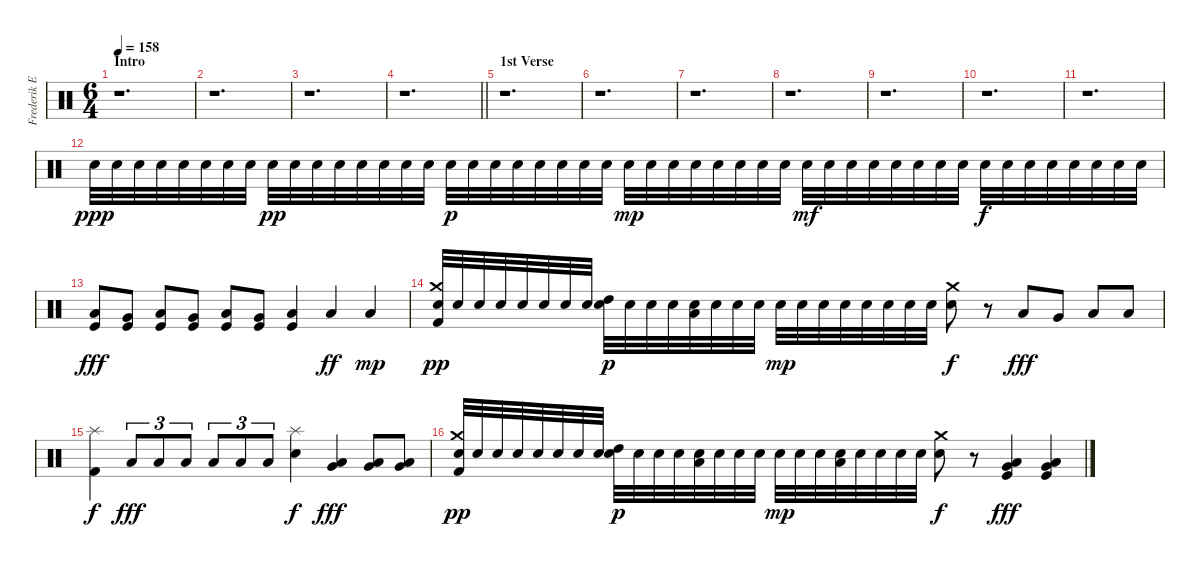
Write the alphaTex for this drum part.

\track ("Frederik Ehmke" "Frederik E") {instrument percussion}
\staff {score}
\articulation defaults
\ts (6 4)
\section ("" "Intro")
\tempo 158
\clef neutral
\ks c
r.1{d dy ppp} |
r.1{d} |
r.1{d} |
\barLineRight lightlight
r.1{d} |
\section ("" "1st Verse")
r.1{d} |
r.1{d} |
r.1{d} |
r.1{d} |
r.1{d} |
r.1{d} |
r.1{d} |
"Electric Snare (hit)".32 "Electric Snare (hit)".32 "Electric Snare (hit)".32 "Electric Snare (hit)".32 "Electric Snare (hit)".32 "Electric Snare (hit)".32 "Electric Snare (hit)".32 "Electric Snare (hit)".32 "Electric Snare (hit)".32{dy pp} "Electric Snare (hit)".32 "Electric Snare (hit)".32 "Electric Snare (hit)".32 "Electric Snare (hit)".32 "Electric Snare (hit)".32 "Electric Snare (hit)".32 "Electric Snare (hit)".32 "Electric Snare (hit)".32{dy p} "Electric Snare (hit)".32 "Electric Snare (hit)".32 "Electric Snare (hit)".32 "Electric Snare (hit)".32 "Electric Snare (hit)".32 "Electric Snare (hit)".32 "Electric Snare (hit)".32 "Electric Snare (hit)".32{dy mp} "Electric Snare (hit)".32 "Electric Snare (hit)".32 "Electric Snare (hit)".32 "Electric Snare (hit)".32 "Electric Snare (hit)".32 "Electric Snare (hit)".32 "Electric Snare (hit)".32 "Electric Snare (hit)".32{dy mf} "Electric Snare (hit)".32 "Electric Snare (hit)".32 "Electric Snare (hit)".32 "Electric Snare (hit)".32 "Electric Snare (hit)".32 "Electric Snare (hit)".32 "Electric Snare (hit)".32 "Electric Snare (hit)".32{dy f} "Electric Snare (hit)".32 "Electric Snare (hit)".32 "Electric Snare (hit)".32 "Electric Snare (hit)".32 "Electric Snare (hit)".32 "Electric Snare (hit)".32 "Electric Snare (hit)".32 |
("Low Floor Tom (hit)" "Kick (hit)").8{dy fff} ("Very Low Tom (hit)" "Kick (hit)").8 ("Low Tom (hit)" "Kick (hit)").8 ("Very Low Tom (hit)" "Kick (hit)").8 ("Low Floor Tom (hit)" "Kick (hit)").8 ("Very Low Tom (hit)" "Kick (hit)").8 ("Low Floor Tom (hit)" "Kick (hit)").4 "Low Floor Tom (hit)".4{dy ff} "Low Floor Tom (hit)".4{dy mp} |
("Crash medium (hit)" "Electric Snare (hit)" "Kick (hit) 2").32{dy pp} "Electric Snare (hit)".32 "Electric Snare (hit)".32 "Electric Snare (hit)".32 "Electric Snare (hit)".32 "Electric Snare (hit)".32 "Electric Snare (hit)".32 "Electric Snare (hit)".32 ("High Tom (hit)" "Electric Snare (hit)").32{dy p} "Electric Snare (hit)".32 "Electric Snare (hit)".32 "Electric Snare (hit)".32 ("Low Tom (hit)" "Electric Snare (hit)").32 "Electric Snare (hit)".32 "Electric Snare (hit)".32 "Electric Snare (hit)".32 "Electric Snare (hit)".32{dy mp} "Electric Snare (hit)".32 "Electric Snare (hit)".32 "Electric Snare (hit)".32 "Electric Snare (hit)".32 "Electric Snare (hit)".32 "Electric Snare (hit)".32 "Electric Snare (hit)".32 ("Crash medium (hit)" "Electric Snare (hit)").8{dy f} r.8 "Low Tom (hit)".8{dy fff} "Very Low Tom (hit)".8 "Low Floor Tom (hit)".8 "Low Floor Tom (hit)".8 |
("Splash (hit)" "Kick (hit) 2").4{dy f} "Low Tom (hit)".8{tu (3 2) dy fff} "Low Tom (hit)".8{tu (3 2)} "Low Tom (hit)".8{tu (3 2)} "Low Tom (hit)".8{tu (3 2)} "Low Tom (hit)".8{tu (3 2)} "Low Tom (hit)".8{tu (3 2)} ("Splash (hit)" "Electric Snare (hit)").4{dy f} ("Low Tom (hit)" "Very Low Tom (hit)").4{dy fff} ("Very Low Tom (hit)" "Low Floor Tom (hit)").8 ("Very Low Tom (hit)" "Low Floor Tom (hit)").8 |
("Crash medium (hit)" "Electric Snare (hit)" "Kick (hit) 2").32{dy pp} "Electric Snare (hit)".32 "Electric Snare (hit)".32 "Electric Snare (hit)".32 "Electric Snare (hit)".32 "Electric Snare (hit)".32 "Electric Snare (hit)".32 "Electric Snare (hit)".32 ("High Tom (hit)" "Electric Snare (hit)").32{dy p} "Electric Snare (hit)".32 "Electric Snare (hit)".32 "Electric Snare (hit)".32 ("Low Tom (hit)" "Electric Snare (hit)").32 "Electric Snare (hit)".32 "Electric Snare (hit)".32 "Electric Snare (hit)".32 "Electric Snare (hit)".32{dy mp} "Electric Snare (hit)".32 "Electric Snare (hit)".32 ("Low Floor Tom (hit)" "Electric Snare (hit)").32 "Electric Snare (hit)".32 "Electric Snare (hit)".32 "Electric Snare (hit)".32 "Electric Snare (hit)".32 ("Crash medium (hit)" "Electric Snare (hit)").8{dy f} r.8 ("Low Tom (hit)" "Very Low Tom (hit)" "Kick (hit)").4{dy fff} ("Very Low Tom (hit)" "Low Floor Tom (hit)" "Kick (hit)").4
